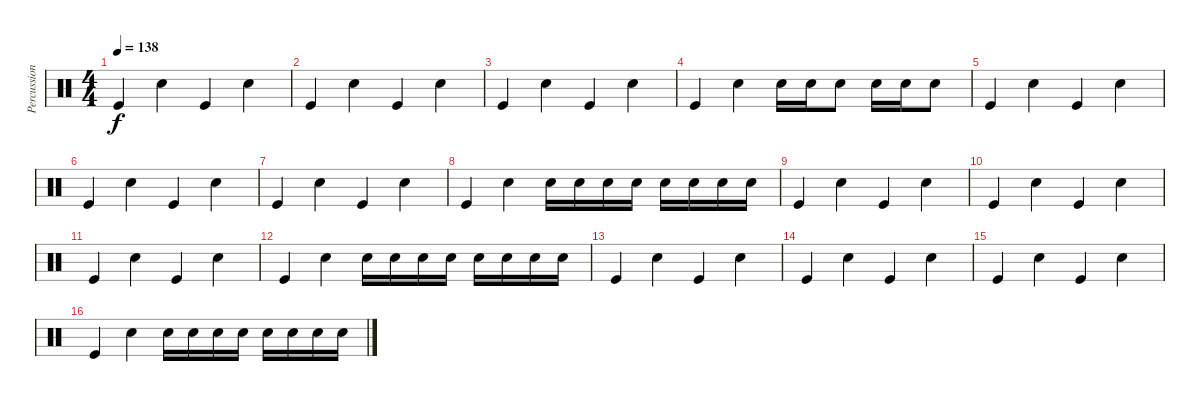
\track ("Percussion" "Percussion") {instrument percussion}
\staff {score}
\articulation defaults
\ts (4 4)
\tempo 138
\clef neutral
\ks c "Kick (hit)".4{dy f} "Snare (hit) 2".4 "Kick (hit)".4 "Snare (hit) 2".4
|
"Kick (hit)".4 "Snare (hit) 2".4 "Kick (hit)".4 "Snare (hit) 2".4 |
"Kick (hit)".4 "Snare (hit) 2".4 "Kick (hit)".4 "Snare (hit) 2".4 |
"Kick (hit)".4 "Snare (hit) 2".4 "Snare (hit) 2".16 "Snare (hit) 2".16 "Snare (hit) 2".8 "Snare (hit) 2".16 "Snare (hit) 2".16 "Snare (hit) 2".8 |
"Kick (hit)".4 "Snare (hit) 2".4 "Kick (hit)".4 "Snare (hit) 2".4 |
"Kick (hit)".4 "Snare (hit) 2".4 "Kick (hit)".4 "Snare (hit) 2".4 |
"Kick (hit)".4 "Snare (hit) 2".4 "Kick (hit)".4 "Snare (hit) 2".4 |
"Kick (hit)".4 "Snare (hit) 2".4 "Snare (hit) 2".16 "Snare (hit) 2".16 "Snare (hit) 2".16 "Snare (hit) 2".16 "Snare (hit) 2".16 "Snare (hit) 2".16 "Snare (hit) 2".16 "Snare (hit) 2".16 |
"Kick (hit)".4 "Snare (hit) 2".4 "Kick (hit)".4 "Snare (hit) 2".4 |
"Kick (hit)".4 "Snare (hit) 2".4 "Kick (hit)".4 "Snare (hit) 2".4 |
"Kick (hit)".4 "Snare (hit) 2".4 "Kick (hit)".4 "Snare (hit) 2".4 |
"Kick (hit)".4 "Snare (hit) 2".4 "Snare (hit) 2".16 "Snare (hit) 2".16 "Snare (hit) 2".16 "Snare (hit) 2".16 "Snare (hit) 2".16 "Snare (hit) 2".16 "Snare (hit) 2".16 "Snare (hit) 2".16 |
"Kick (hit)".4 "Snare (hit) 2".4 "Kick (hit)".4 "Snare (hit) 2".4 |
"Kick (hit)".4 "Snare (hit) 2".4 "Kick (hit)".4 "Snare (hit) 2".4 |
"Kick (hit)".4 "Snare (hit) 2".4 "Kick (hit)".4 "Snare (hit) 2".4 |
"Kick (hit)".4 "Snare (hit) 2".4 "Snare (hit) 2".16 "Snare (hit) 2".16 "Snare (hit) 2".16 "Snare (hit) 2".16 "Snare (hit) 2".16 "Snare (hit) 2".16 "Snare (hit) 2".16 "Snare (hit) 2".16
